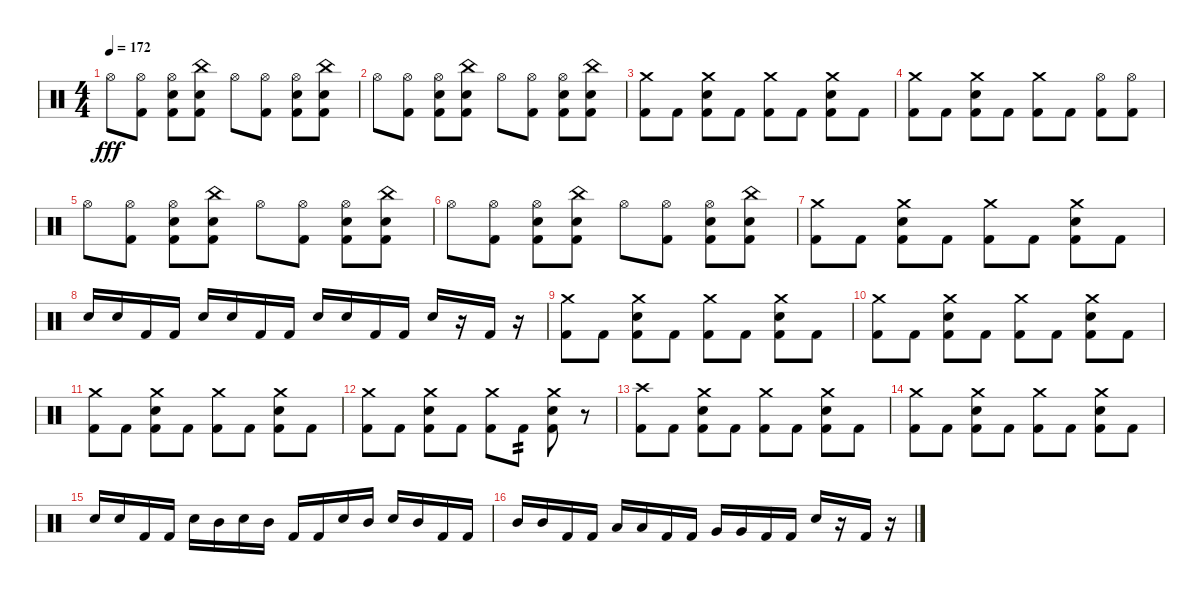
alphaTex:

\track (" " " ") {instrument percussion}
\staff {score}
\articulation defaults
\ts (4 4)
\tempo 172
\clef neutral
\ks c "Hi-Hat (open)".8{dy fff}
("Hi-Hat (open)" "Kick (hit) 2").8 ("Hi-Hat (open)" "Snare (hit) 2" "Kick (hit) 2").8 ("China (hit)" "Snare (hit) 2" "Kick (hit) 2").8 "Hi-Hat (open)".8 ("Hi-Hat (open)" "Kick (hit) 2").8 ("Hi-Hat (open)" "Snare (hit) 2" "Kick (hit) 2").8 ("China (hit)" "Snare (hit) 2" "Kick (hit) 2").8 |
"Hi-Hat (open)".8 ("Hi-Hat (open)" "Kick (hit) 2").8 ("Hi-Hat (open)" "Snare (hit) 2" "Kick (hit) 2").8 ("China (hit)" "Snare (hit) 2" "Kick (hit) 2").8 "Hi-Hat (open)".8 ("Hi-Hat (open)" "Kick (hit) 2").8 ("Hi-Hat (open)" "Snare (hit) 2" "Kick (hit) 2").8 ("China (hit)" "Snare (hit) 2" "Kick (hit) 2").8 |
("Crash medium (hit)" "Kick (hit) 2").8 "Kick (hit) 2".8 ("Crash medium (hit)" "Snare (hit) 2" "Kick (hit) 2").8 "Kick (hit) 2".8 ("Crash medium (hit)" "Kick (hit) 2").8 "Kick (hit) 2".8 ("Crash medium (hit)" "Snare (hit) 2" "Kick (hit) 2").8 "Kick (hit) 2".8 |
("Crash medium (hit)" "Kick (hit) 2").8 "Kick (hit) 2".8 ("Crash medium (hit)" "Snare (hit) 2" "Kick (hit) 2").8 "Kick (hit) 2".8 ("Crash medium (hit)" "Kick (hit) 2").8 "Kick (hit) 2".8 ("Hi-Hat (open)" "Kick (hit) 2").8 ("Hi-Hat (open)" "Kick (hit) 2").8 |
"Hi-Hat (open)".8 ("Hi-Hat (open)" "Kick (hit) 2").8 ("Hi-Hat (open)" "Snare (hit) 2" "Kick (hit) 2").8 ("China (hit)" "Snare (hit) 2" "Kick (hit) 2").8 "Hi-Hat (open)".8 ("Hi-Hat (open)" "Kick (hit) 2").8 ("Hi-Hat (open)" "Snare (hit) 2" "Kick (hit) 2").8 ("China (hit)" "Snare (hit) 2" "Kick (hit) 2").8 |
"Hi-Hat (open)".8 ("Hi-Hat (open)" "Kick (hit) 2").8 ("Hi-Hat (open)" "Snare (hit) 2" "Kick (hit) 2").8 ("China (hit)" "Snare (hit) 2" "Kick (hit) 2").8 "Hi-Hat (open)".8 ("Hi-Hat (open)" "Kick (hit) 2").8 ("Hi-Hat (open)" "Snare (hit) 2" "Kick (hit) 2").8 ("China (hit)" "Snare (hit) 2" "Kick (hit) 2").8 |
("Crash medium (hit)" "Kick (hit) 2").8 "Kick (hit) 2".8 ("Crash medium (hit)" "Snare (hit) 2" "Kick (hit) 2").8 "Kick (hit) 2".8 ("Crash medium (hit)" "Kick (hit) 2").8 "Kick (hit) 2".8 ("Crash medium (hit)" "Snare (hit) 2" "Kick (hit) 2").8 "Kick (hit) 2".8 |
"Snare (hit) 2".16 "Snare (hit) 2".16 "Kick (hit) 2".16 "Kick (hit) 2".16 "Snare (hit) 2".16 "Snare (hit) 2".16 "Kick (hit) 2".16 "Kick (hit) 2".16 "Snare (hit) 2".16 "Snare (hit) 2".16 "Kick (hit) 2".16 "Kick (hit) 2".16 "Snare (hit) 2".16 r.16 "Kick (hit) 2".16 r.16 |
("Crash medium (hit)" "Kick (hit) 2").8 "Kick (hit) 2".8 ("Crash medium (hit)" "Snare (hit) 2" "Kick (hit) 2").8 "Kick (hit) 2".8 ("Crash medium (hit)" "Kick (hit) 2").8 "Kick (hit) 2".8 ("Crash medium (hit)" "Snare (hit) 2" "Kick (hit) 2").8 "Kick (hit) 2".8 |
("Crash medium (hit)" "Kick (hit) 2").8 "Kick (hit) 2".8 ("Crash medium (hit)" "Snare (hit) 2" "Kick (hit) 2").8 "Kick (hit) 2".8 ("Crash medium (hit)" "Kick (hit) 2").8 "Kick (hit) 2".8 ("Crash medium (hit)" "Snare (hit) 2" "Kick (hit) 2").8 "Kick (hit) 2".8 |
("Crash medium (hit)" "Kick (hit) 2").8 "Kick (hit) 2".8 ("Crash medium (hit)" "Snare (hit) 2" "Kick (hit) 2").8 "Kick (hit) 2".8 ("Crash medium (hit)" "Kick (hit) 2").8 "Kick (hit) 2".8 ("Crash medium (hit)" "Snare (hit) 2" "Kick (hit) 2").8 "Kick (hit) 2".8 |
("Crash medium (hit)" "Kick (hit) 2").8 "Kick (hit) 2".8 ("Crash medium (hit)" "Snare (hit) 2" "Kick (hit) 2").8 "Kick (hit) 2".8 ("Crash medium (hit)" "Kick (hit) 2").8 "Kick (hit) 2".8{tp 2} ("Crash medium (hit)" "Snare (hit) 2" "Kick (hit) 2").8 r.8 |
("Crash high (hit)" "Kick (hit) 2").8 "Kick (hit) 2".8 ("Crash medium (hit)" "Snare (hit) 2" "Kick (hit) 2").8 "Kick (hit) 2".8 ("Crash medium (hit)" "Kick (hit) 2").8 "Kick (hit) 2".8 ("Crash medium (hit)" "Snare (hit) 2" "Kick (hit) 2").8 "Kick (hit) 2".8 |
("Crash medium (hit)" "Kick (hit) 2").8 "Kick (hit) 2".8 ("Crash medium (hit)" "Snare (hit) 2" "Kick (hit) 2").8 "Kick (hit) 2".8 ("Crash medium (hit)" "Kick (hit) 2").8 "Kick (hit) 2".8 ("Crash medium (hit)" "Snare (hit) 2" "Kick (hit) 2").8 "Kick (hit) 2".8 |
"Snare (hit) 2".16 "Snare (hit) 2".16 "Kick (hit) 2".16 "Kick (hit) 2".16 "Snare (hit) 2".16 "Mid Tom (hit)".16 "Snare (hit) 2".16 "Mid Tom (hit)".16 "Kick (hit) 2".16 "Kick (hit) 2".16 "Snare (hit) 2".16 "Mid Tom (hit)".16 "Snare (hit) 2".16 "Mid Tom (hit)".16 "Kick (hit) 2".16 "Kick (hit) 2".16 |
"Mid Tom (hit)".16 "Mid Tom (hit)".16 "Kick (hit) 2".16 "Kick (hit) 2".16 "Low Tom (hit)".16 "Low Tom (hit)".16 "Kick (hit) 2".16 "Kick (hit) 2".16 "Very Low Tom (hit)".16 "Very Low Tom (hit)".16 "Kick (hit) 2".16 "Kick (hit) 2".16 "Snare (hit) 2".16 r.16 "Kick (hit) 2".16 r.16
